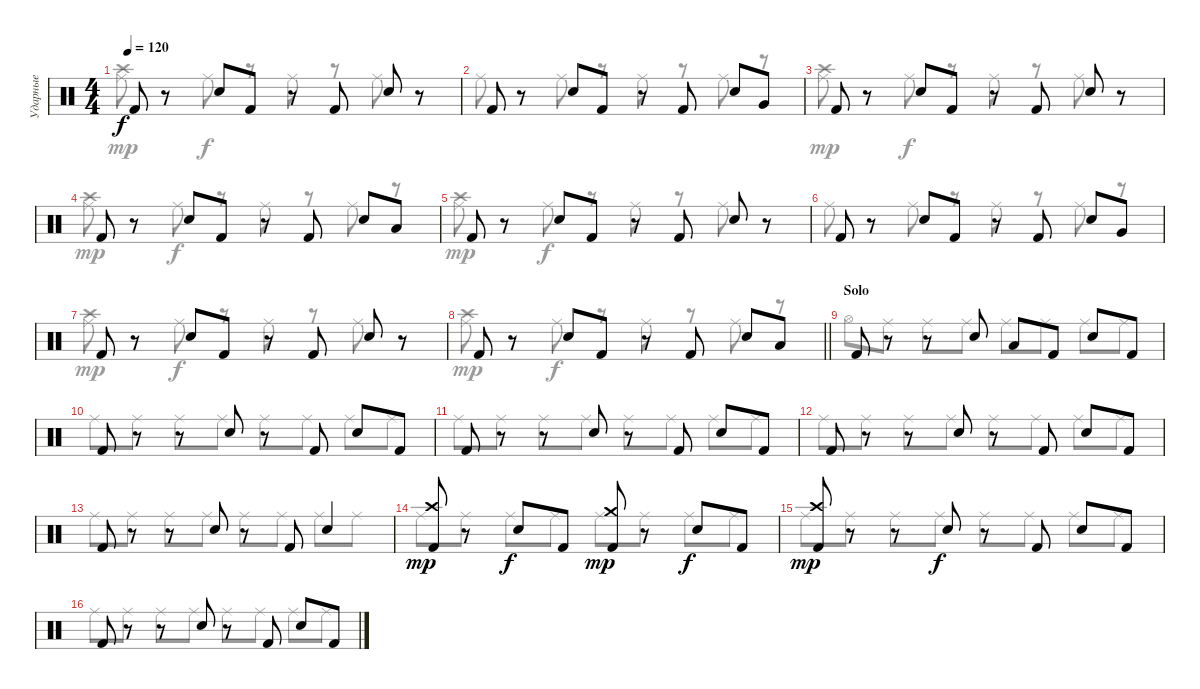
\track ("Ударные" "Ударные") {instrument percussion}
\staff {score}
\articulation defaults
\voice
\ts (4 4)
\tempo 120
\clef neutral
\ks c "Kick (hit) 2".8{dy f}
r.8 "Snare (hit) 2".8 "Kick (hit) 2".8 r.8 "Kick (hit) 2".8 "Snare (hit) 2".8 r.8 |
"Kick (hit) 2".8 r.8 "Snare (hit) 2".8 "Kick (hit) 2".8 r.8 "Kick (hit) 2".8 "Snare (hit) 2".8 "Very Low Tom (hit)".8 |
"Kick (hit) 2".8 r.8 "Snare (hit) 2".8 "Kick (hit) 2".8 r.8 "Kick (hit) 2".8 "Snare (hit) 2".8 r.8 |
"Kick (hit) 2".8 r.8 "Snare (hit) 2".8 "Kick (hit) 2".8 r.8 "Kick (hit) 2".8 "Snare (hit) 2".8 "Low Tom (hit)".8 |
"Kick (hit) 2".8 r.8 "Snare (hit) 2".8 "Kick (hit) 2".8 r.8 "Kick (hit) 2".8 "Snare (hit) 2".8 r.8 |
"Kick (hit) 2".8 r.8 "Snare (hit) 2".8 "Kick (hit) 2".8 r.8 "Kick (hit) 2".8 "Snare (hit) 2".8 "Very Low Tom (hit)".8 |
"Kick (hit) 2".8 r.8 "Snare (hit) 2".8 "Kick (hit) 2".8 r.8 "Kick (hit) 2".8 "Snare (hit) 2".8 r.8 |
\barLineRight lightlight "Kick (hit) 2".8
r.8 "Snare (hit) 2".8 "Kick (hit) 2".8 r.8 "Kick (hit) 2".8 "Snare (hit) 2".8 "Low Tom (hit)".8 |
\section ("" "Solo")
"Kick (hit) 2".8 r.8 r.8 "Snare (hit) 2".8 "Low Tom (hit)".8 "Kick (hit) 2".8 "Snare (hit) 2".8 "Kick (hit) 2".8 |
"Kick (hit) 2".8 r.8 r.8 "Snare (hit) 2".8 r.8 "Kick (hit) 2".8 "Snare (hit) 2".8 "Kick (hit) 2".8 |
"Kick (hit) 2".8 r.8 r.8 "Snare (hit) 2".8 r.8 "Kick (hit) 2".8 "Snare (hit) 2".8 "Kick (hit) 2".8 |
"Kick (hit) 2".8 r.8 r.8 "Snare (hit) 2".8 r.8 "Kick (hit) 2".8 "Snare (hit) 2".8 "Kick (hit) 2".8 |
"Kick (hit) 2".8 r.8 r.8 "Snare (hit) 2".8 r.8 "Kick (hit) 2".8 "Snare (hit) 2".4 |
("Crash high (hit)" "Kick (hit) 2").8{dy mp} r.8 "Snare (hit) 2".8{dy f} "Kick (hit) 2".8 ("Crash medium (hit)" "Kick (hit) 2").8{dy mp} r.8 "Snare (hit) 2".8{dy f} "Kick (hit) 2".8 |
("Crash high (hit)" "Kick (hit) 2").8{dy mp} r.8 r.8 "Snare (hit) 2".8{dy f} r.8 "Kick (hit) 2".8 "Snare (hit) 2".8 "Kick (hit) 2".8 |
"Kick (hit) 2".8 r.8 r.8 "Snare (hit) 2".8 r.8 "Kick (hit) 2".8 "Snare (hit) 2".8 "Kick (hit) 2".8
\voice
\clef neutral
\ottava regular
\simile none
\ks c
("Ride (middle)" "Crash high (hit)").8{dy mp} r.8 "Ride (middle)".8{dy f} r.8 "Ride (middle)".8 r.8 "Ride (middle)".8 r.8 |
"Ride (middle)".8 r.8 "Ride (middle)".8 r.8 "Ride (middle)".8 r.8 "Ride (middle)".8 r.8 |
("Ride (middle)" "Crash high (hit)").8{dy mp} r.8 "Ride (middle)".8{dy f} r.8 "Ride (middle)".8 r.8 "Ride (middle)".8 r.8 |
("Ride (middle)" "Crash high (hit)").8{dy mp} r.8 "Ride (middle)".8{dy f} r.8 "Ride (middle)".8 r.8 "Ride (middle)".8 r.8 |
("Ride (middle)" "Crash high (hit)").8{dy mp} r.8 "Ride (middle)".8{dy f} r.8 "Ride (middle)".8 r.8 "Ride (middle)".8 r.8 |
"Ride (middle)".8 r.8 "Ride (middle)".8 r.8 "Ride (middle)".8 r.8 "Ride (middle)".8 r.8 |
("Ride (middle)" "Crash high (hit)").8{dy mp} r.8 "Ride (middle)".8{dy f} r.8 "Ride (middle)".8 r.8 "Ride (middle)".8 r.8 |
\barLineRight lightlight
("Ride (middle)" "Crash high (hit)").8{dy mp} r.8 "Ride (middle)".8{dy f} r.8 "Ride (middle)".8 r.8 "Ride (middle)".8 r.8 |
"Hi-Hat (open)".8 "Ride (middle)".8 "Ride (middle)".8 "Ride (middle)".8 "Ride (middle)".8 "Ride (middle)".8 "Ride (middle)".8 "Ride (middle)".8 |
"Ride (middle)".8 "Ride (middle)".8 "Ride (middle)".8 "Ride (middle)".8 "Ride (middle)".8 "Ride (middle)".8 "Ride (middle)".8 "Ride (middle)".8 |
"Ride (middle)".8 "Ride (middle)".8 "Ride (middle)".8 "Ride (middle)".8 "Ride (middle)".8 "Ride (middle)".8 "Ride (middle)".8 "Ride (middle)".8 |
"Ride (middle)".8 "Ride (middle)".8 "Ride (middle)".8 "Ride (middle)".8 "Ride (middle)".8 "Ride (middle)".8 "Ride (middle)".8 "Ride (middle)".8 |
"Ride (middle)".8 "Ride (middle)".8 "Ride (middle)".8 "Ride (middle)".8 "Ride (middle)".8 "Ride (middle)".8 "Ride (middle)".8 "Ride (middle)".8 |
"Ride (middle)".8 "Ride (middle)".8 "Ride (middle)".8 "Ride (middle)".8 "Ride (middle)".8 "Ride (middle)".8 "Ride (middle)".8 "Ride (middle)".8 |
"Ride (middle)".8 "Ride (middle)".8 "Ride (middle)".8 "Ride (middle)".8 "Ride (middle)".8 "Ride (middle)".8 "Ride (middle)".8 "Ride (middle)".8 |
"Ride (middle)".8 "Ride (middle)".8 "Ride (middle)".8 "Ride (middle)".8 "Ride (middle)".8 "Ride (middle)".8 "Ride (middle)".8 "Ride (middle)".8
